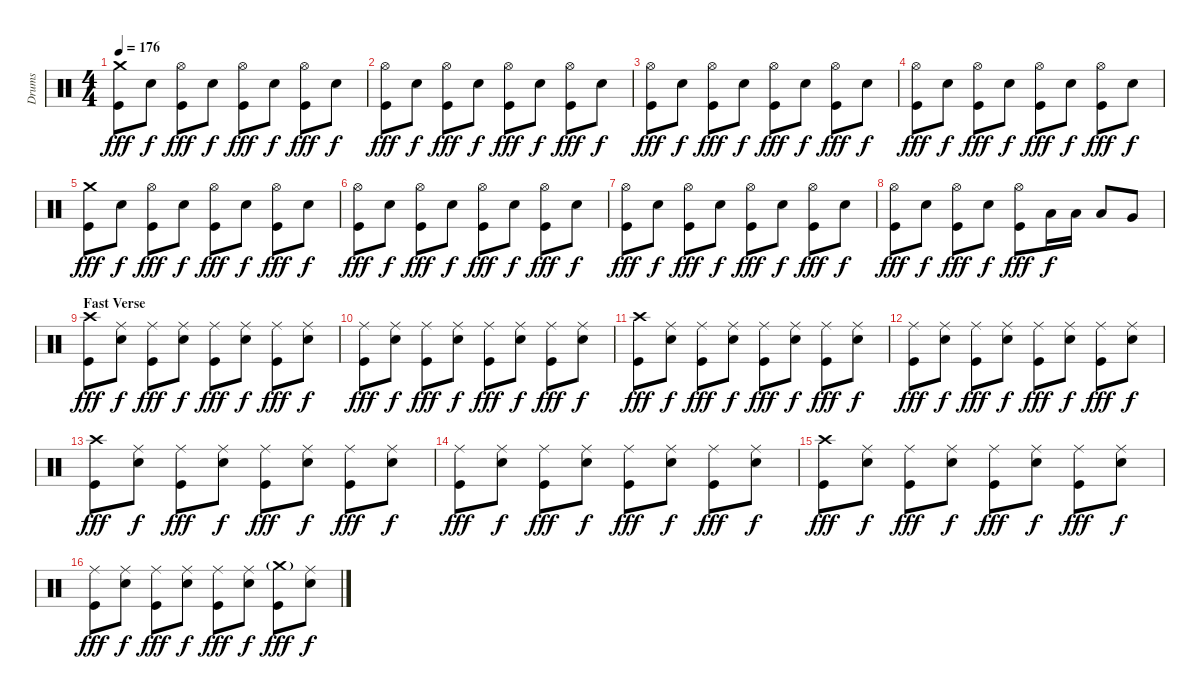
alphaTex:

\track ("Drums" "Drums") {instrument percussion}
\staff {score}
\articulation defaults
\ts (4 4)
\tempo 176
\clef neutral
\ks c
("Crash medium (hit)" "Kick (hit)").8{dy fff} "Snare (hit) 2".8{dy f} ("Hi-Hat (open)" "Kick (hit)").8{dy fff} "Snare (hit) 2".8{dy f} ("Hi-Hat (open)" "Kick (hit)").8{dy fff} "Snare (hit) 2".8{dy f} ("Hi-Hat (open)" "Kick (hit)").8{dy fff} "Snare (hit) 2".8{dy f} |
("Hi-Hat (open)" "Kick (hit)").8{dy fff} "Snare (hit) 2".8{dy f} ("Hi-Hat (open)" "Kick (hit)").8{dy fff} "Snare (hit) 2".8{dy f} ("Hi-Hat (open)" "Kick (hit)").8{dy fff} "Snare (hit) 2".8{dy f} ("Hi-Hat (open)" "Kick (hit)").8{dy fff} "Snare (hit) 2".8{dy f} |
("Hi-Hat (open)" "Kick (hit)").8{dy fff} "Snare (hit) 2".8{dy f} ("Hi-Hat (open)" "Kick (hit)").8{dy fff} "Snare (hit) 2".8{dy f} ("Hi-Hat (open)" "Kick (hit)").8{dy fff} "Snare (hit) 2".8{dy f} ("Hi-Hat (open)" "Kick (hit)").8{dy fff} "Snare (hit) 2".8{dy f} |
("Hi-Hat (open)" "Kick (hit)").8{dy fff} "Snare (hit) 2".8{dy f} ("Hi-Hat (open)" "Kick (hit)").8{dy fff} "Snare (hit) 2".8{dy f} ("Hi-Hat (open)" "Kick (hit)").8{dy fff} "Snare (hit) 2".8{dy f} ("Hi-Hat (open)" "Kick (hit)").8{dy fff} "Snare (hit) 2".8{dy f} |
("Crash medium (hit)" "Kick (hit)").8{dy fff} "Snare (hit) 2".8{dy f} ("Hi-Hat (open)" "Kick (hit)").8{dy fff} "Snare (hit) 2".8{dy f} ("Hi-Hat (open)" "Kick (hit)").8{dy fff} "Snare (hit) 2".8{dy f} ("Hi-Hat (open)" "Kick (hit)").8{dy fff} "Snare (hit) 2".8{dy f} |
("Hi-Hat (open)" "Kick (hit)").8{dy fff} "Snare (hit) 2".8{dy f} ("Hi-Hat (open)" "Kick (hit)").8{dy fff} "Snare (hit) 2".8{dy f} ("Hi-Hat (open)" "Kick (hit)").8{dy fff} "Snare (hit) 2".8{dy f} ("Hi-Hat (open)" "Kick (hit)").8{dy fff} "Snare (hit) 2".8{dy f} |
("Hi-Hat (open)" "Kick (hit)").8{dy fff} "Snare (hit) 2".8{dy f} ("Hi-Hat (open)" "Kick (hit)").8{dy fff} "Snare (hit) 2".8{dy f} ("Hi-Hat (open)" "Kick (hit)").8{dy fff} "Snare (hit) 2".8{dy f} ("Hi-Hat (open)" "Kick (hit)").8{dy fff} "Snare (hit) 2".8{dy f} |
("Hi-Hat (open)" "Kick (hit)").8{dy fff} "Snare (hit) 2".8{dy f} ("Hi-Hat (open)" "Kick (hit)").8{dy fff} "Snare (hit) 2".8{dy f} ("Hi-Hat (open)" "Kick (hit)").8{dy fff} "Low Tom (hit)".16{dy f} "Low Tom (hit)".16 "Low Tom (hit)".8 "Very Low Tom (hit)".8 |
\section ("" "Fast Verse")
("Crash high (hit)" "Kick (hit)").8{dy fff} ("Ride (middle)" "Snare (hit) 2").8{dy f} ("Ride (middle)" "Kick (hit)").8{dy fff} ("Ride (middle)" "Snare (hit) 2").8{dy f} ("Ride (middle)" "Kick (hit)").8{dy fff} ("Ride (middle)" "Snare (hit) 2").8{dy f} ("Ride (middle)" "Kick (hit)").8{dy fff} ("Ride (middle)" "Snare (hit) 2").8{dy f} |
("Ride (middle)" "Kick (hit)").8{dy fff} ("Ride (middle)" "Snare (hit) 2").8{dy f} ("Ride (middle)" "Kick (hit)").8{dy fff} ("Ride (middle)" "Snare (hit) 2").8{dy f} ("Ride (middle)" "Kick (hit)").8{dy fff} ("Ride (middle)" "Snare (hit) 2").8{dy f} ("Ride (middle)" "Kick (hit)").8{dy fff} ("Ride (middle)" "Snare (hit) 2").8{dy f} |
("Crash high (hit)" "Kick (hit)").8{dy fff} ("Ride (middle)" "Snare (hit) 2").8{dy f} ("Ride (middle)" "Kick (hit)").8{dy fff} ("Ride (middle)" "Snare (hit) 2").8{dy f} ("Ride (middle)" "Kick (hit)").8{dy fff} ("Ride (middle)" "Snare (hit) 2").8{dy f} ("Ride (middle)" "Kick (hit)").8{dy fff} ("Ride (middle)" "Snare (hit) 2").8{dy f} |
("Ride (middle)" "Kick (hit)").8{dy fff} ("Ride (middle)" "Snare (hit) 2").8{dy f} ("Ride (middle)" "Kick (hit)").8{dy fff} ("Ride (middle)" "Snare (hit) 2").8{dy f} ("Ride (middle)" "Kick (hit)").8{dy fff} ("Ride (middle)" "Snare (hit) 2").8{dy f} ("Ride (middle)" "Kick (hit)").8{dy fff} ("Ride (middle)" "Snare (hit) 2").8{dy f} |
("Crash high (hit)" "Kick (hit)").8{dy fff} ("Ride (middle)" "Snare (hit) 2").8{dy f} ("Ride (middle)" "Kick (hit)").8{dy fff} ("Ride (middle)" "Snare (hit) 2").8{dy f} ("Ride (middle)" "Kick (hit)").8{dy fff} ("Ride (middle)" "Snare (hit) 2").8{dy f} ("Ride (middle)" "Kick (hit)").8{dy fff} ("Ride (middle)" "Snare (hit) 2").8{dy f} |
("Ride (middle)" "Kick (hit)").8{dy fff} ("Ride (middle)" "Snare (hit) 2").8{dy f} ("Ride (middle)" "Kick (hit)").8{dy fff} ("Ride (middle)" "Snare (hit) 2").8{dy f} ("Ride (middle)" "Kick (hit)").8{dy fff} ("Ride (middle)" "Snare (hit) 2").8{dy f} ("Ride (middle)" "Kick (hit)").8{dy fff} ("Ride (middle)" "Snare (hit) 2").8{dy f} |
("Crash high (hit)" "Kick (hit)").8{dy fff} ("Ride (middle)" "Snare (hit) 2").8{dy f} ("Ride (middle)" "Kick (hit)").8{dy fff} ("Ride (middle)" "Snare (hit) 2").8{dy f} ("Ride (middle)" "Kick (hit)").8{dy fff} ("Ride (middle)" "Snare (hit) 2").8{dy f} ("Ride (middle)" "Kick (hit)").8{dy fff} ("Ride (middle)" "Snare (hit) 2").8{dy f} |
("Ride (middle)" "Kick (hit)").8{dy fff} ("Ride (middle)" "Snare (hit) 2").8{dy f} ("Ride (middle)" "Kick (hit)").8{dy fff} ("Ride (middle)" "Snare (hit) 2").8{dy f} ("Ride (middle)" "Kick (hit)").8{dy fff} ("Ride (middle)" "Snare (hit) 2").8{dy f} ("Crash medium (hit)"{g} "Kick (hit)").8{dy fff} ("Ride (middle)" "Snare (hit) 2").8{dy f}
